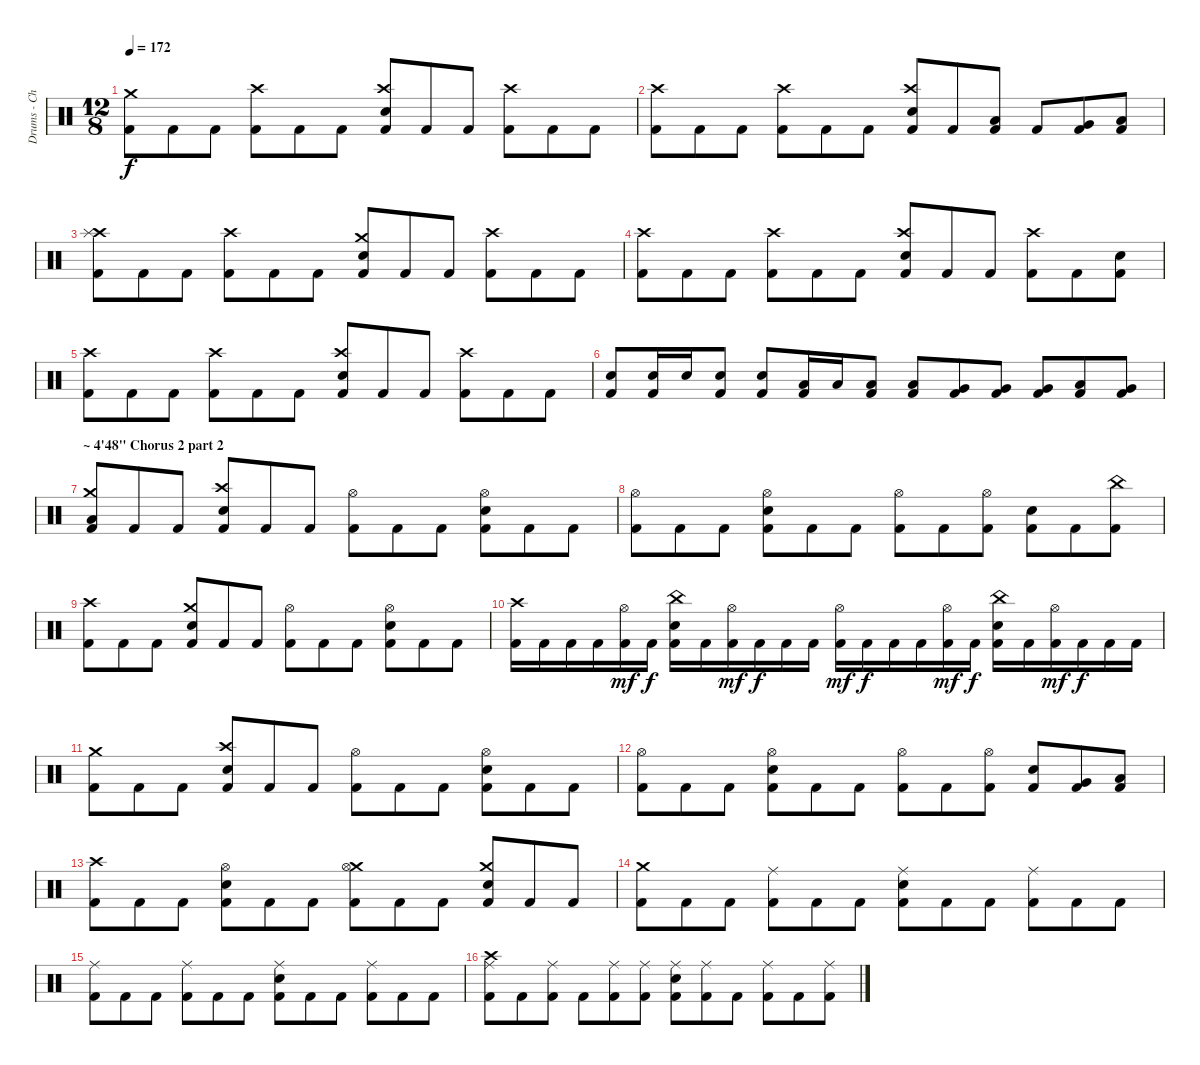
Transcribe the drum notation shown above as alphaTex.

\track ("Drums - Christopher Merzinsky" "Drums - Ch") {instrument percussion}
\staff {score}
\articulation defaults
\ts (12 8)
\tempo 172
\clef neutral
\ks c
("Kick (hit) 2" "Crash medium (hit)").8{dy f} "Kick (hit) 2".8 "Kick (hit) 2".8 ("Kick (hit) 2" "Crash high (hit)").8 "Kick (hit) 2".8 "Kick (hit) 2".8 ("Electric Snare (hit)" "Kick (hit) 2" "Crash high (hit)").8 "Kick (hit) 2".8 "Kick (hit) 2".8 ("Kick (hit) 2" "Crash high (hit)").8 "Kick (hit) 2".8 "Kick (hit) 2".8 |
("Kick (hit) 2" "Crash high (hit)").8 "Kick (hit) 2".8 "Kick (hit) 2".8 ("Kick (hit) 2" "Crash high (hit)").8 "Kick (hit) 2".8 "Kick (hit) 2".8 ("Electric Snare (hit)" "Kick (hit) 2" "Crash high (hit)").8 "Kick (hit) 2".8 ("Kick (hit) 2" "Low Tom (hit)").8 "Kick (hit) 2".8 ("Kick (hit) 2" "Very Low Tom (hit)").8 ("Kick (hit) 2" "Low Floor Tom (hit)").8 |
("Kick (hit) 2" "Crash high (hit)" "Splash (hit)").8 "Kick (hit) 2".8 "Kick (hit) 2".8 ("Kick (hit) 2" "Crash high (hit)").8 "Kick (hit) 2".8 "Kick (hit) 2".8 ("Electric Snare (hit)" "Kick (hit) 2" "Crash medium (hit)").8 "Kick (hit) 2".8 "Kick (hit) 2".8 ("Kick (hit) 2" "Crash high (hit)").8 "Kick (hit) 2".8 "Kick (hit) 2".8 |
("Kick (hit) 2" "Crash high (hit)").8 "Kick (hit) 2".8 "Kick (hit) 2".8 ("Kick (hit) 2" "Crash high (hit)").8 "Kick (hit) 2".8 "Kick (hit) 2".8 ("Electric Snare (hit)" "Kick (hit) 2" "Crash high (hit)").8 "Kick (hit) 2".8 "Kick (hit) 2".8 ("Kick (hit) 2" "Crash high (hit)").8 "Kick (hit) 2".8 ("Kick (hit) 2" "Electric Snare (hit)").8 |
("Kick (hit) 2" "Crash high (hit)").8 "Kick (hit) 2".8 "Kick (hit) 2".8 ("Kick (hit) 2" "Crash high (hit)").8 "Kick (hit) 2".8 "Kick (hit) 2".8 ("Electric Snare (hit)" "Kick (hit) 2" "Crash high (hit)").8 "Kick (hit) 2".8 "Kick (hit) 2".8 ("Kick (hit) 2" "Crash high (hit)").8 "Kick (hit) 2".8 "Kick (hit) 2".8 |
("Kick (hit) 2" "Electric Snare (hit)").8 ("Kick (hit) 2" "Electric Snare (hit)").16 "Electric Snare (hit)".16 ("Kick (hit) 2" "Electric Snare (hit)").8 ("Kick (hit) 2" "Electric Snare (hit)").8 ("Kick (hit) 2" "Low Tom (hit)").16 "Low Tom (hit)".16 ("Kick (hit) 2" "Low Tom (hit)").8 ("Kick (hit) 2" "Low Tom (hit)").8 ("Kick (hit) 2" "Very Low Tom (hit)").8 ("Kick (hit) 2" "Very Low Tom (hit)").8 ("Kick (hit) 2" "Very Low Tom (hit)").8 ("Kick (hit) 2" "Low Tom (hit)").8 ("Kick (hit) 2" "Very Low Tom (hit)").8 |
\section ("" "~ 4'48\" Chorus 2 part 2")
("Low Floor Tom (hit)" "Crash medium (hit)" "Kick (hit) 2").8 "Kick (hit) 2".8 "Kick (hit) 2".8 ("Crash high (hit)" "Electric Snare (hit)" "Kick (hit) 2").8 "Kick (hit) 2".8 "Kick (hit) 2".8 ("Kick (hit) 2" "Hi-Hat (open)").8 "Kick (hit) 2".8 "Kick (hit) 2".8 ("Electric Snare (hit)" "Kick (hit) 2" "Hi-Hat (open)").8 "Kick (hit) 2".8 "Kick (hit) 2".8 |
("Kick (hit) 2" "Hi-Hat (open)").8 "Kick (hit) 2".8 "Kick (hit) 2".8 ("Electric Snare (hit)" "Kick (hit) 2" "Hi-Hat (open)").8 "Kick (hit) 2".8 "Kick (hit) 2".8 ("Kick (hit) 2" "Hi-Hat (open)").8 "Kick (hit) 2".8 ("Kick (hit) 2" "Hi-Hat (open)").8 ("Electric Snare (hit)" "Kick (hit) 2").8 "Kick (hit) 2".8 ("Kick (hit) 2" "China (hit)").8 |
("Kick (hit) 2" "Crash high (hit)").8 "Kick (hit) 2".8 "Kick (hit) 2".8 ("Electric Snare (hit)" "Kick (hit) 2" "Crash medium (hit)").8 "Kick (hit) 2".8 "Kick (hit) 2".8 ("Kick (hit) 2" "Hi-Hat (open)").8 "Kick (hit) 2".8 "Kick (hit) 2".8 ("Electric Snare (hit)" "Kick (hit) 2" "Hi-Hat (open)").8 "Kick (hit) 2".8 "Kick (hit) 2".8 |
("Kick (hit) 2" "Crash high (hit)").16 "Kick (hit) 2".16 "Kick (hit) 2".16 "Kick (hit) 2".16 ("Kick (hit) 2" "Hi-Hat (open)").16{dy mf} "Kick (hit) 2".16{dy f} ("Electric Snare (hit)" "Kick (hit) 2" "China (hit)").16 "Kick (hit) 2".16 ("Kick (hit) 2" "Hi-Hat (open)").16{dy mf} "Kick (hit) 2".16{dy f} "Kick (hit) 2".16 "Kick (hit) 2".16 ("Kick (hit) 2" "Hi-Hat (open)").16{dy mf} "Kick (hit) 2".16{dy f} "Kick (hit) 2".16 "Kick (hit) 2".16 ("Kick (hit) 2" "Hi-Hat (open)").16{dy mf} "Kick (hit) 2".16{dy f} ("Electric Snare (hit)" "Kick (hit) 2" "China (hit)").16 "Kick (hit) 2".16 ("Kick (hit) 2" "Hi-Hat (open)").16{dy mf} "Kick (hit) 2".16{dy f} "Kick (hit) 2".16 "Kick (hit) 2".16 |
("Kick (hit) 2" "Crash medium (hit)").8 "Kick (hit) 2".8 "Kick (hit) 2".8 ("Electric Snare (hit)" "Kick (hit) 2" "Crash high (hit)").8 "Kick (hit) 2".8 "Kick (hit) 2".8 ("Kick (hit) 2" "Hi-Hat (open)").8 "Kick (hit) 2".8 "Kick (hit) 2".8 ("Electric Snare (hit)" "Kick (hit) 2" "Hi-Hat (open)").8 "Kick (hit) 2".8 "Kick (hit) 2".8 |
("Kick (hit) 2" "Hi-Hat (open)").8 "Kick (hit) 2".8 "Kick (hit) 2".8 ("Electric Snare (hit)" "Kick (hit) 2" "Hi-Hat (open)").8 "Kick (hit) 2".8 "Kick (hit) 2".8 ("Kick (hit) 2" "Hi-Hat (open)").8 "Kick (hit) 2".8 ("Kick (hit) 2" "Hi-Hat (open)").8 ("Electric Snare (hit)" "Kick (hit) 2").8 ("Kick (hit) 2" "Very Low Tom (hit)").8 ("Kick (hit) 2" "Low Floor Tom (hit)").8 |
("Kick (hit) 2" "Crash high (hit)").8 "Kick (hit) 2".8 "Kick (hit) 2".8 ("Electric Snare (hit)" "Kick (hit) 2" "Hi-Hat (open)").8 "Kick (hit) 2".8 "Kick (hit) 2".8 ("Kick (hit) 2" "Crash medium (hit)" "Hi-Hat (open)").8 "Kick (hit) 2".8 "Kick (hit) 2".8 ("Electric Snare (hit)" "Kick (hit) 2" "Crash medium (hit)").8 "Kick (hit) 2".8 "Kick (hit) 2".8 |
("Kick (hit) 2" "Crash medium (hit)").8 "Kick (hit) 2".8 "Kick (hit) 2".8 ("Kick (hit) 2" "Ride (middle)").8 "Kick (hit) 2".8 "Kick (hit) 2".8 ("Electric Snare (hit)" "Kick (hit) 2" "Ride (middle)").8 "Kick (hit) 2".8 "Kick (hit) 2".8 ("Kick (hit) 2" "Ride (middle)").8 "Kick (hit) 2".8 "Kick (hit) 2".8 |
("Kick (hit) 2" "Ride (middle)").8 "Kick (hit) 2".8 "Kick (hit) 2".8 ("Kick (hit) 2" "Ride (middle)").8 "Kick (hit) 2".8 "Kick (hit) 2".8 ("Electric Snare (hit)" "Kick (hit) 2" "Ride (middle)").8 "Kick (hit) 2".8 "Kick (hit) 2".8 ("Kick (hit) 2" "Ride (middle)").8 "Kick (hit) 2".8 "Kick (hit) 2".8 |
("Ride (middle)" "Kick (hit) 2" "Crash high (hit)").8 "Kick (hit) 2".8 ("Ride (middle)" "Kick (hit) 2").8 "Kick (hit) 2".8 ("Ride (middle)" "Kick (hit) 2").8 ("Ride (middle)" "Kick (hit) 2").8 ("Ride (middle)" "Electric Snare (hit)" "Kick (hit) 2").8 ("Ride (middle)" "Kick (hit) 2").8 "Kick (hit) 2".8 ("Ride (middle)" "Kick (hit) 2").8 "Kick (hit) 2".8 ("Kick (hit) 2" "Ride (middle)").8
